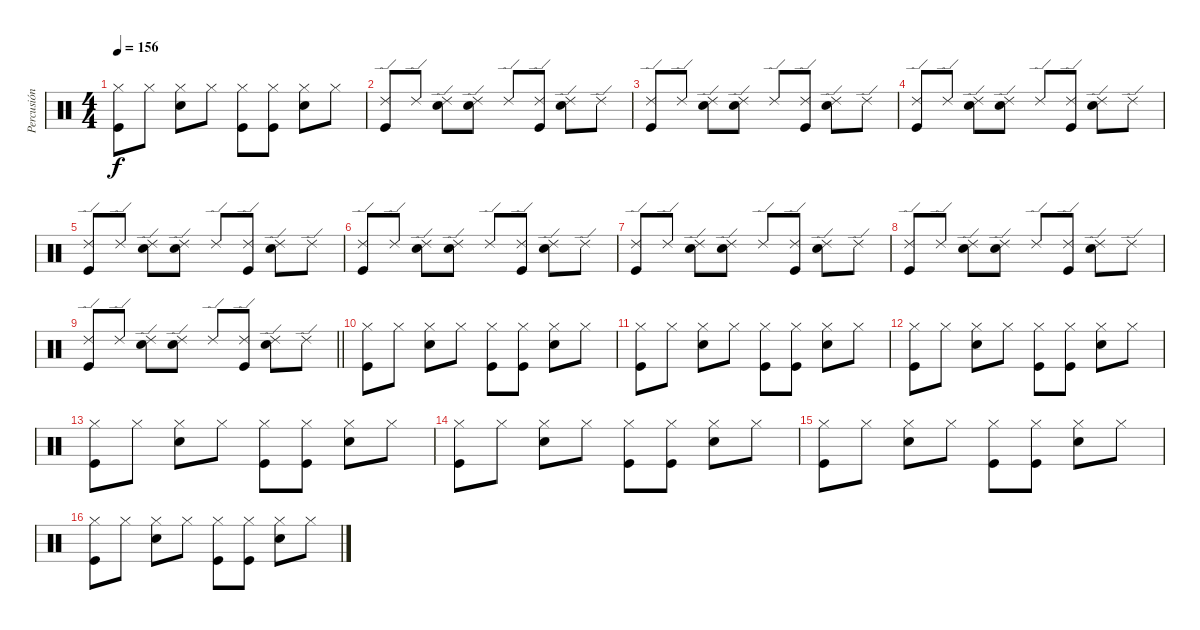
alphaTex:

\track ("Percusión" "Percusión") {instrument percussion}
\staff {score}
\articulation defaults
\ts (4 4)
\tempo 156
\clef neutral
\ks c
("Hi-Hat (closed)" "Kick (hit)").8{dy f} "Hi-Hat (closed)".8 ("Hi-Hat (closed)" "Electric Snare (hit)").8 "Hi-Hat (closed)".8 ("Hi-Hat (closed)" "Kick (hit)").8 ("Hi-Hat (closed)" "Kick (hit)").8 ("Hi-Hat (closed)" "Electric Snare (hit)").8 "Hi-Hat (closed)".8 |
("Ride (edge) 2" "Kick (hit)").8 "Ride (edge) 2".8 ("Ride (edge) 2" "Electric Snare (hit)").8 ("Ride (edge) 2" "Electric Snare (hit)").8 "Ride (edge) 2".8 ("Ride (edge) 2" "Kick (hit)").8 ("Ride (edge) 2" "Electric Snare (hit)").8 "Ride (edge) 2".8 |
("Ride (edge) 2" "Kick (hit)").8 "Ride (edge) 2".8 ("Ride (edge) 2" "Electric Snare (hit)").8 ("Ride (edge) 2" "Electric Snare (hit)").8 "Ride (edge) 2".8 ("Ride (edge) 2" "Kick (hit)").8 ("Ride (edge) 2" "Electric Snare (hit)").8 "Ride (edge) 2".8 |
("Ride (edge) 2" "Kick (hit)").8 "Ride (edge) 2".8 ("Ride (edge) 2" "Electric Snare (hit)").8 ("Ride (edge) 2" "Electric Snare (hit)").8 "Ride (edge) 2".8 ("Ride (edge) 2" "Kick (hit)").8 ("Ride (edge) 2" "Electric Snare (hit)").8 "Ride (edge) 2".8 |
("Ride (edge) 2" "Kick (hit)").8 "Ride (edge) 2".8 ("Ride (edge) 2" "Electric Snare (hit)").8 ("Ride (edge) 2" "Electric Snare (hit)").8 "Ride (edge) 2".8 ("Ride (edge) 2" "Kick (hit)").8 ("Ride (edge) 2" "Electric Snare (hit)").8 "Ride (edge) 2".8 |
("Ride (edge) 2" "Kick (hit)").8 "Ride (edge) 2".8 ("Ride (edge) 2" "Electric Snare (hit)").8 ("Ride (edge) 2" "Electric Snare (hit)").8 "Ride (edge) 2".8 ("Ride (edge) 2" "Kick (hit)").8 ("Ride (edge) 2" "Electric Snare (hit)").8 "Ride (edge) 2".8 |
("Ride (edge) 2" "Kick (hit)").8 "Ride (edge) 2".8 ("Ride (edge) 2" "Electric Snare (hit)").8 ("Ride (edge) 2" "Electric Snare (hit)").8 "Ride (edge) 2".8 ("Ride (edge) 2" "Kick (hit)").8 ("Ride (edge) 2" "Electric Snare (hit)").8 "Ride (edge) 2".8 |
("Ride (edge) 2" "Kick (hit)").8 "Ride (edge) 2".8 ("Ride (edge) 2" "Electric Snare (hit)").8 ("Ride (edge) 2" "Electric Snare (hit)").8 "Ride (edge) 2".8 ("Ride (edge) 2" "Kick (hit)").8 ("Ride (edge) 2" "Electric Snare (hit)").8 "Ride (edge) 2".8 |
\barLineRight lightlight
("Ride (edge) 2" "Kick (hit)").8 "Ride (edge) 2".8 ("Ride (edge) 2" "Electric Snare (hit)").8 ("Ride (edge) 2" "Electric Snare (hit)").8 "Ride (edge) 2".8 ("Ride (edge) 2" "Kick (hit)").8 ("Ride (edge) 2" "Electric Snare (hit)").8 "Ride (edge) 2".8 |
("Hi-Hat (closed)" "Kick (hit)").8 "Hi-Hat (closed)".8 ("Hi-Hat (closed)" "Electric Snare (hit)").8 "Hi-Hat (closed)".8 ("Hi-Hat (closed)" "Kick (hit)").8 ("Hi-Hat (closed)" "Kick (hit)").8 ("Hi-Hat (closed)" "Electric Snare (hit)").8 "Hi-Hat (closed)".8 |
("Hi-Hat (closed)" "Kick (hit)").8 "Hi-Hat (closed)".8 ("Hi-Hat (closed)" "Electric Snare (hit)").8 "Hi-Hat (closed)".8 ("Hi-Hat (closed)" "Kick (hit)").8 ("Hi-Hat (closed)" "Kick (hit)").8 ("Hi-Hat (closed)" "Electric Snare (hit)").8 "Hi-Hat (closed)".8 |
("Hi-Hat (closed)" "Kick (hit)").8 "Hi-Hat (closed)".8 ("Hi-Hat (closed)" "Electric Snare (hit)").8 "Hi-Hat (closed)".8 ("Hi-Hat (closed)" "Kick (hit)").8 ("Hi-Hat (closed)" "Kick (hit)").8 ("Hi-Hat (closed)" "Electric Snare (hit)").8 "Hi-Hat (closed)".8 |
("Hi-Hat (closed)" "Kick (hit)").8 "Hi-Hat (closed)".8 ("Hi-Hat (closed)" "Electric Snare (hit)").8 "Hi-Hat (closed)".8 ("Hi-Hat (closed)" "Kick (hit)").8 ("Hi-Hat (closed)" "Kick (hit)").8 ("Hi-Hat (closed)" "Electric Snare (hit)").8 "Hi-Hat (closed)".8 |
("Hi-Hat (closed)" "Kick (hit)").8 "Hi-Hat (closed)".8 ("Hi-Hat (closed)" "Electric Snare (hit)").8 "Hi-Hat (closed)".8 ("Hi-Hat (closed)" "Kick (hit)").8 ("Hi-Hat (closed)" "Kick (hit)").8 ("Hi-Hat (closed)" "Electric Snare (hit)").8 "Hi-Hat (closed)".8 |
("Hi-Hat (closed)" "Kick (hit)").8 "Hi-Hat (closed)".8 ("Hi-Hat (closed)" "Electric Snare (hit)").8 "Hi-Hat (closed)".8 ("Hi-Hat (closed)" "Kick (hit)").8 ("Hi-Hat (closed)" "Kick (hit)").8 ("Hi-Hat (closed)" "Electric Snare (hit)").8 "Hi-Hat (closed)".8 |
("Hi-Hat (closed)" "Kick (hit)").8 "Hi-Hat (closed)".8 ("Hi-Hat (closed)" "Electric Snare (hit)").8 "Hi-Hat (closed)".8 ("Hi-Hat (closed)" "Kick (hit)").8 ("Hi-Hat (closed)" "Kick (hit)").8 ("Hi-Hat (closed)" "Electric Snare (hit)").8 "Hi-Hat (closed)".8
